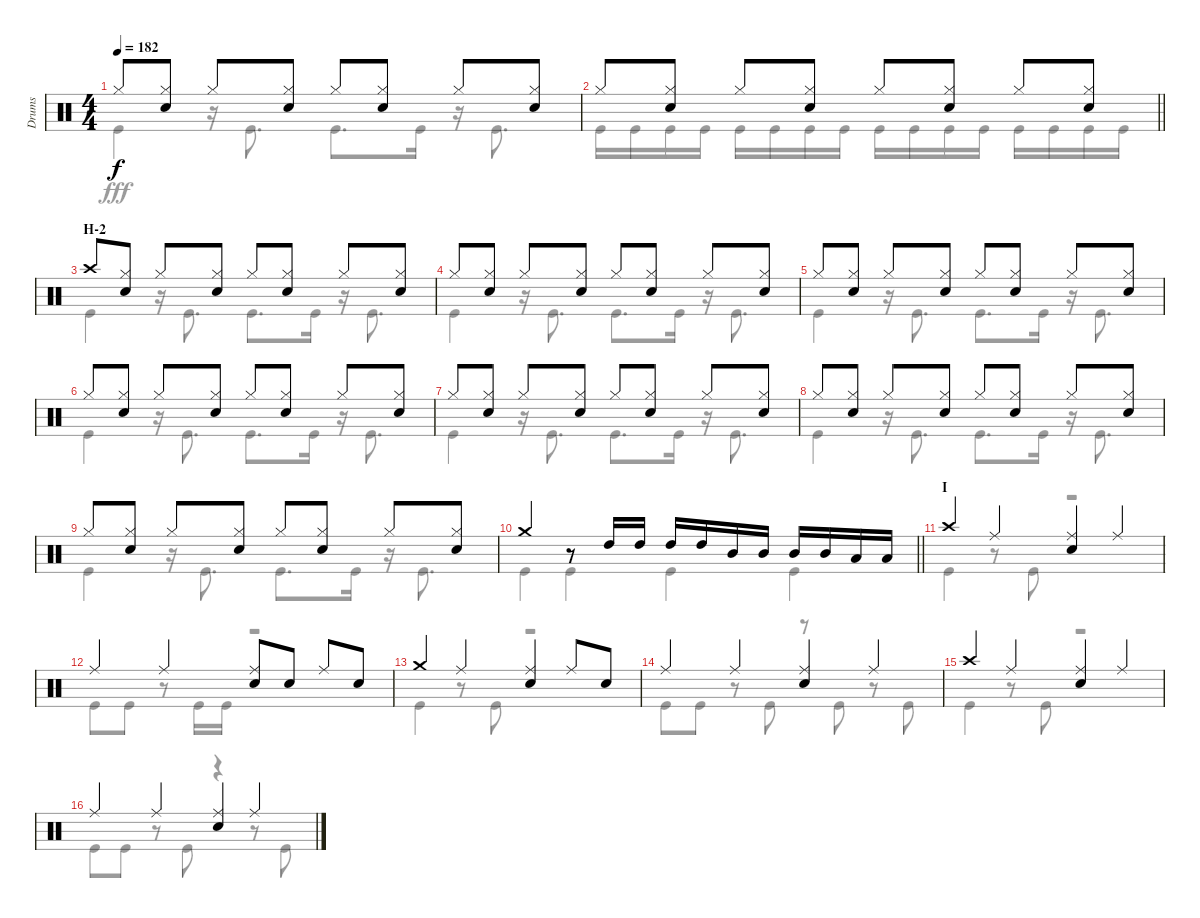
\track ("Drums" "Drums") {instrument percussion}
\staff {score}
\articulation defaults
\voice
\ts (4 4)
\tempo 182
\clef neutral
\ks c "Hi-Hat (closed)".8{dy f}
("Hi-Hat (closed)" "Snare (hit) 2").8 "Hi-Hat (closed)".8 ("Hi-Hat (closed)" "Snare (hit) 2").8 "Hi-Hat (closed)".8 ("Hi-Hat (closed)" "Snare (hit) 2").8 "Hi-Hat (closed)".8 ("Hi-Hat (closed)" "Snare (hit) 2").8 |
\barLineRight lightlight "Hi-Hat (closed)".8
("Hi-Hat (closed)" "Snare (hit) 2").8 "Hi-Hat (closed)".8 ("Hi-Hat (closed)" "Snare (hit) 2").8 "Hi-Hat (closed)".8 ("Hi-Hat (closed)" "Snare (hit) 2").8 "Hi-Hat (closed)".8 ("Hi-Hat (closed)" "Snare (hit) 2").8 |
\section ("" "H-2")
"Crash high (hit)".8 ("Hi-Hat (closed)" "Snare (hit) 2").8 "Hi-Hat (closed)".8 ("Hi-Hat (closed)" "Snare (hit) 2").8 "Hi-Hat (closed)".8 ("Hi-Hat (closed)" "Snare (hit) 2").8 "Hi-Hat (closed)".8 ("Hi-Hat (closed)" "Snare (hit) 2").8 |
"Hi-Hat (closed)".8 ("Hi-Hat (closed)" "Snare (hit) 2").8 "Hi-Hat (closed)".8 ("Hi-Hat (closed)" "Snare (hit) 2").8 "Hi-Hat (closed)".8 ("Hi-Hat (closed)" "Snare (hit) 2").8 "Hi-Hat (closed)".8 ("Hi-Hat (closed)" "Snare (hit) 2").8 |
"Hi-Hat (closed)".8 ("Hi-Hat (closed)" "Snare (hit) 2").8 "Hi-Hat (closed)".8 ("Hi-Hat (closed)" "Snare (hit) 2").8 "Hi-Hat (closed)".8 ("Hi-Hat (closed)" "Snare (hit) 2").8 "Hi-Hat (closed)".8 ("Hi-Hat (closed)" "Snare (hit) 2").8 |
"Hi-Hat (closed)".8 ("Hi-Hat (closed)" "Snare (hit) 2").8 "Hi-Hat (closed)".8 ("Hi-Hat (closed)" "Snare (hit) 2").8 "Hi-Hat (closed)".8 ("Hi-Hat (closed)" "Snare (hit) 2").8 "Hi-Hat (closed)".8 ("Hi-Hat (closed)" "Snare (hit) 2").8 |
"Hi-Hat (closed)".8 ("Hi-Hat (closed)" "Snare (hit) 2").8 "Hi-Hat (closed)".8 ("Hi-Hat (closed)" "Snare (hit) 2").8 "Hi-Hat (closed)".8 ("Hi-Hat (closed)" "Snare (hit) 2").8 "Hi-Hat (closed)".8 ("Hi-Hat (closed)" "Snare (hit) 2").8 |
"Hi-Hat (closed)".8 ("Hi-Hat (closed)" "Snare (hit) 2").8 "Hi-Hat (closed)".8 ("Hi-Hat (closed)" "Snare (hit) 2").8 "Hi-Hat (closed)".8 ("Hi-Hat (closed)" "Snare (hit) 2").8 "Hi-Hat (closed)".8 ("Hi-Hat (closed)" "Snare (hit) 2").8 |
"Hi-Hat (closed)".8 ("Hi-Hat (closed)" "Snare (hit) 2").8 "Hi-Hat (closed)".8 ("Hi-Hat (closed)" "Snare (hit) 2").8 "Hi-Hat (closed)".8 ("Hi-Hat (closed)" "Snare (hit) 2").8 "Hi-Hat (closed)".8 ("Hi-Hat (closed)" "Snare (hit) 2").8 |
\barLineRight lightlight "Crash medium (hit)".4
r.8 "High Tom (hit)".16 "High Tom (hit)".16 "High Tom (hit)".16 "High Tom (hit)".16 "Mid Tom (hit)".16 "Mid Tom (hit)".16 "Mid Tom (hit)".16 "Mid Tom (hit)".16 "Low Tom (hit)".16 "Low Tom (hit)".16 |
\section ("" "I")
"Crash high (hit)".4 "Ride (middle)".4 ("Ride (middle)" "Snare (hit) 2").4 "Ride (middle)".4 |
"Ride (middle)".4 "Ride (middle)".4 ("Ride (middle)" "Snare (hit) 2").8 "Snare (hit) 2".8 "Ride (middle)".8 "Snare (hit) 2".8 |
"Crash medium (hit)".4 "Ride (middle)".4 ("Ride (middle)" "Snare (hit) 2").4 "Ride (middle)".8 "Snare (hit) 2".8 |
"Ride (middle)".4 "Ride (middle)".4 ("Ride (middle)" "Snare (hit) 2").4 "Ride (middle)".4 |
"Crash high (hit)".4 "Ride (middle)".4 ("Ride (middle)" "Snare (hit) 2").4 "Ride (middle)".4 |
"Ride (middle)".4 "Ride (middle)".4 ("Ride (middle)" "Snare (hit) 2").4 "Ride (middle)".4
\voice
\clef neutral
\ottava regular
\simile none
\ks c "Kick (hit)".4{dy fff}
r.16 "Kick (hit)".8{d} "Kick (hit)".8{d} "Kick (hit)".16 r.16 "Kick (hit)".8{d} |
\barLineRight lightlight "Kick (hit)".16 "Kick (hit)".16 "Kick (hit)".16 "Kick (hit)".16 "Kick (hit)".16 "Kick (hit)".16 "Kick (hit)".16 "Kick (hit)".16 "Kick (hit)".16 "Kick (hit)".16 "Kick (hit)".16 "Kick (hit)".16 "Kick (hit)".16 "Kick (hit)".16 "Kick (hit)".16 "Kick (hit)".16
|
"Kick (hit)".4 r.16 "Kick (hit)".8{d} "Kick (hit)".8{d} "Kick (hit)".16 r.16 "Kick (hit)".8{d} |
"Kick (hit)".4 r.16 "Kick (hit)".8{d} "Kick (hit)".8{d} "Kick (hit)".16 r.16 "Kick (hit)".8{d} |
"Kick (hit)".4 r.16 "Kick (hit)".8{d} "Kick (hit)".8{d} "Kick (hit)".16 r.16 "Kick (hit)".8{d} |
"Kick (hit)".4 r.16 "Kick (hit)".8{d} "Kick (hit)".8{d} "Kick (hit)".16 r.16 "Kick (hit)".8{d} |
"Kick (hit)".4 r.16 "Kick (hit)".8{d} "Kick (hit)".8{d} "Kick (hit)".16 r.16 "Kick (hit)".8{d} |
"Kick (hit)".4 r.16 "Kick (hit)".8{d} "Kick (hit)".8{d} "Kick (hit)".16 r.16 "Kick (hit)".8{d} |
"Kick (hit)".4 r.16 "Kick (hit)".8{d} "Kick (hit)".8{d} "Kick (hit)".16 r.16 "Kick (hit)".8{d} |
\barLineRight lightlight "Kick (hit)".4 "Kick (hit)".4 "Kick (hit)".4 "Kick (hit)".4
|
"Kick (hit)".4 r.8 "Kick (hit)".8 r.2 |
"Kick (hit)".8 "Kick (hit)".8 r.8 "Kick (hit)".16 "Kick (hit)".16 r.2 |
"Kick (hit)".4 r.8 "Kick (hit)".8 r.2 |
"Kick (hit)".8 "Kick (hit)".8 r.8 "Kick (hit)".8 r.8 "Kick (hit)".8 r.8 "Kick (hit)".8 |
"Kick (hit)".4 r.8 "Kick (hit)".8 r.2 |
"Kick (hit)".8 "Kick (hit)".8 r.8 "Kick (hit)".8 r.4 r.8 "Kick (hit)".8
